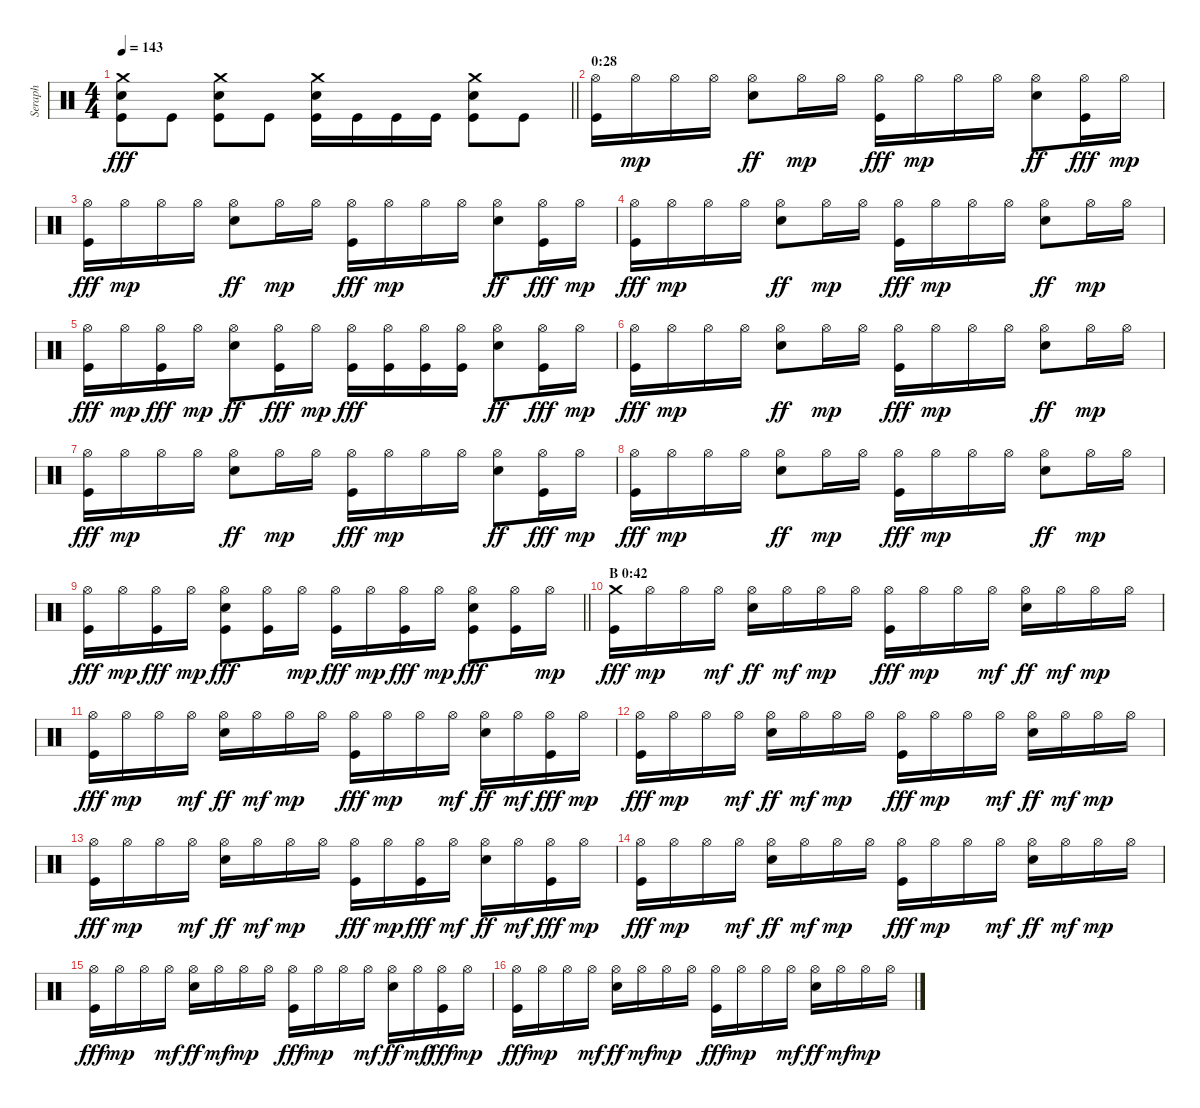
\track ("Seraph" "Seraph") {instrument percussion}
\staff {score}
\articulation defaults
\ts (4 4)
\tempo 143
\clef neutral
\barLineRight lightlight
\ks c
("Crash medium (hit)" "Electric Snare (hit)" "Kick (hit)").8{dy fff} "Kick (hit)".8 ("Crash medium (hit)" "Electric Snare (hit)" "Kick (hit)").8 "Kick (hit)".8 ("Crash medium (hit)" "Electric Snare (hit)" "Kick (hit)").16 "Kick (hit)".16 "Kick (hit)".16 "Kick (hit)".16 ("Crash medium (hit)" "Electric Snare (hit)" "Kick (hit)").8 "Kick (hit)".8 |
\section ("" "0:28")
("Hi-Hat (open)" "Kick (hit)").16 "Hi-Hat (open)".16{dy mp} "Hi-Hat (open)".16 "Hi-Hat (open)".16 ("Hi-Hat (open)" "Electric Snare (hit)").8{dy ff} "Hi-Hat (open)".16{dy mp} "Hi-Hat (open)".16 ("Hi-Hat (open)" "Kick (hit)").16{dy fff} "Hi-Hat (open)".16{dy mp} "Hi-Hat (open)".16 "Hi-Hat (open)".16 ("Hi-Hat (open)" "Electric Snare (hit)").8{dy ff} ("Hi-Hat (open)" "Kick (hit)").16{dy fff} "Hi-Hat (open)".16{dy mp} |
("Hi-Hat (open)" "Kick (hit)").16{dy fff} "Hi-Hat (open)".16{dy mp} "Hi-Hat (open)".16 "Hi-Hat (open)".16 ("Hi-Hat (open)" "Electric Snare (hit)").8{dy ff} "Hi-Hat (open)".16{dy mp} "Hi-Hat (open)".16 ("Hi-Hat (open)" "Kick (hit)").16{dy fff} "Hi-Hat (open)".16{dy mp} "Hi-Hat (open)".16 "Hi-Hat (open)".16 ("Hi-Hat (open)" "Electric Snare (hit)").8{dy ff} ("Hi-Hat (open)" "Kick (hit)").16{dy fff} "Hi-Hat (open)".16{dy mp} |
("Hi-Hat (open)" "Kick (hit)").16{dy fff} "Hi-Hat (open)".16{dy mp} "Hi-Hat (open)".16 "Hi-Hat (open)".16 ("Hi-Hat (open)" "Electric Snare (hit)").8{dy ff} "Hi-Hat (open)".16{dy mp} "Hi-Hat (open)".16 ("Hi-Hat (open)" "Kick (hit)").16{dy fff} "Hi-Hat (open)".16{dy mp} "Hi-Hat (open)".16 "Hi-Hat (open)".16 ("Hi-Hat (open)" "Electric Snare (hit)").8{dy ff} "Hi-Hat (open)".16{dy mp} "Hi-Hat (open)".16 |
("Hi-Hat (open)" "Kick (hit)").16{dy fff} "Hi-Hat (open)".16{dy mp} ("Hi-Hat (open)" "Kick (hit)").16{dy fff} "Hi-Hat (open)".16{dy mp} ("Hi-Hat (open)" "Electric Snare (hit)").8{dy ff} ("Hi-Hat (open)" "Kick (hit)").16{dy fff} "Hi-Hat (open)".16{dy mp} ("Hi-Hat (open)" "Kick (hit)").16{dy fff} ("Hi-Hat (open)" "Kick (hit)").16 ("Hi-Hat (open)" "Kick (hit)").16 ("Hi-Hat (open)" "Kick (hit)").16 ("Hi-Hat (open)" "Electric Snare (hit)").8{dy ff} ("Hi-Hat (open)" "Kick (hit)").16{dy fff} "Hi-Hat (open)".16{dy mp} |
("Hi-Hat (open)" "Kick (hit)").16{dy fff} "Hi-Hat (open)".16{dy mp} "Hi-Hat (open)".16 "Hi-Hat (open)".16 ("Hi-Hat (open)" "Electric Snare (hit)").8{dy ff} "Hi-Hat (open)".16{dy mp} "Hi-Hat (open)".16 ("Hi-Hat (open)" "Kick (hit)").16{dy fff} "Hi-Hat (open)".16{dy mp} "Hi-Hat (open)".16 "Hi-Hat (open)".16 ("Hi-Hat (open)" "Electric Snare (hit)").8{dy ff} "Hi-Hat (open)".16{dy mp} "Hi-Hat (open)".16 |
("Hi-Hat (open)" "Kick (hit)").16{dy fff} "Hi-Hat (open)".16{dy mp} "Hi-Hat (open)".16 "Hi-Hat (open)".16 ("Hi-Hat (open)" "Electric Snare (hit)").8{dy ff} "Hi-Hat (open)".16{dy mp} "Hi-Hat (open)".16 ("Hi-Hat (open)" "Kick (hit)").16{dy fff} "Hi-Hat (open)".16{dy mp} "Hi-Hat (open)".16 "Hi-Hat (open)".16 ("Hi-Hat (open)" "Electric Snare (hit)").8{dy ff} ("Hi-Hat (open)" "Kick (hit)").16{dy fff} "Hi-Hat (open)".16{dy mp} |
("Hi-Hat (open)" "Kick (hit)").16{dy fff} "Hi-Hat (open)".16{dy mp} "Hi-Hat (open)".16 "Hi-Hat (open)".16 ("Hi-Hat (open)" "Electric Snare (hit)").8{dy ff} "Hi-Hat (open)".16{dy mp} "Hi-Hat (open)".16 ("Hi-Hat (open)" "Kick (hit)").16{dy fff} "Hi-Hat (open)".16{dy mp} "Hi-Hat (open)".16 "Hi-Hat (open)".16 ("Hi-Hat (open)" "Electric Snare (hit)").8{dy ff} "Hi-Hat (open)".16{dy mp} "Hi-Hat (open)".16 |
\barLineRight lightlight
("Hi-Hat (open)" "Kick (hit)").16{dy fff} "Hi-Hat (open)".16{dy mp} ("Hi-Hat (open)" "Kick (hit)").16{dy fff} "Hi-Hat (open)".16{dy mp} ("Hi-Hat (open)" "Electric Snare (hit)" "Kick (hit)").8{dy fff} ("Hi-Hat (open)" "Kick (hit)").16 "Hi-Hat (open)".16{dy mp} ("Hi-Hat (open)" "Kick (hit)").16{dy fff} "Hi-Hat (open)".16{dy mp} ("Hi-Hat (open)" "Kick (hit)").16{dy fff} "Hi-Hat (open)".16{dy mp} ("Hi-Hat (open)" "Electric Snare (hit)" "Kick (hit)").8{dy fff} ("Hi-Hat (open)" "Kick (hit)").16 "Hi-Hat (open)".16{dy mp} |
\section ("" "B 0:42")
("Crash medium (hit)" "Kick (hit)").16{dy fff} "Hi-Hat (open)".16{dy mp} "Hi-Hat (open)".16 "Hi-Hat (open)".16{dy mf} ("Hi-Hat (open)" "Electric Snare (hit)").16{dy ff} "Hi-Hat (open)".16{dy mf} "Hi-Hat (open)".16{dy mp} "Hi-Hat (open)".16 ("Hi-Hat (open)" "Kick (hit)").16{dy fff} "Hi-Hat (open)".16{dy mp} "Hi-Hat (open)".16 "Hi-Hat (open)".16{dy mf} ("Hi-Hat (open)" "Electric Snare (hit)").16{dy ff} "Hi-Hat (open)".16{dy mf} "Hi-Hat (open)".16{dy mp} "Hi-Hat (open)".16 |
("Hi-Hat (open)" "Kick (hit)").16{dy fff} "Hi-Hat (open)".16{dy mp} "Hi-Hat (open)".16 "Hi-Hat (open)".16{dy mf} ("Hi-Hat (open)" "Electric Snare (hit)").16{dy ff} "Hi-Hat (open)".16{dy mf} "Hi-Hat (open)".16{dy mp} "Hi-Hat (open)".16 ("Hi-Hat (open)" "Kick (hit)").16{dy fff} "Hi-Hat (open)".16{dy mp} "Hi-Hat (open)".16 "Hi-Hat (open)".16{dy mf} ("Hi-Hat (open)" "Electric Snare (hit)").16{dy ff} "Hi-Hat (open)".16{dy mf} ("Hi-Hat (open)" "Kick (hit)").16{dy fff} "Hi-Hat (open)".16{dy mp} |
("Hi-Hat (open)" "Kick (hit)").16{dy fff} "Hi-Hat (open)".16{dy mp} "Hi-Hat (open)".16 "Hi-Hat (open)".16{dy mf} ("Hi-Hat (open)" "Electric Snare (hit)").16{dy ff} "Hi-Hat (open)".16{dy mf} "Hi-Hat (open)".16{dy mp} "Hi-Hat (open)".16 ("Hi-Hat (open)" "Kick (hit)").16{dy fff} "Hi-Hat (open)".16{dy mp} "Hi-Hat (open)".16 "Hi-Hat (open)".16{dy mf} ("Hi-Hat (open)" "Electric Snare (hit)").16{dy ff} "Hi-Hat (open)".16{dy mf} "Hi-Hat (open)".16{dy mp} "Hi-Hat (open)".16 |
("Hi-Hat (open)" "Kick (hit)").16{dy fff} "Hi-Hat (open)".16{dy mp} "Hi-Hat (open)".16 "Hi-Hat (open)".16{dy mf} ("Hi-Hat (open)" "Electric Snare (hit)").16{dy ff} "Hi-Hat (open)".16{dy mf} "Hi-Hat (open)".16{dy mp} "Hi-Hat (open)".16 ("Hi-Hat (open)" "Kick (hit)").16{dy fff} "Hi-Hat (open)".16{dy mp} ("Hi-Hat (open)" "Kick (hit)").16{dy fff} "Hi-Hat (open)".16{dy mf} ("Hi-Hat (open)" "Electric Snare (hit)").16{dy ff} "Hi-Hat (open)".16{dy mf} ("Hi-Hat (open)" "Kick (hit)").16{dy fff} "Hi-Hat (open)".16{dy mp} |
("Hi-Hat (open)" "Kick (hit)").16{dy fff} "Hi-Hat (open)".16{dy mp} "Hi-Hat (open)".16 "Hi-Hat (open)".16{dy mf} ("Hi-Hat (open)" "Electric Snare (hit)").16{dy ff} "Hi-Hat (open)".16{dy mf} "Hi-Hat (open)".16{dy mp} "Hi-Hat (open)".16 ("Hi-Hat (open)" "Kick (hit)").16{dy fff} "Hi-Hat (open)".16{dy mp} "Hi-Hat (open)".16 "Hi-Hat (open)".16{dy mf} ("Hi-Hat (open)" "Electric Snare (hit)").16{dy ff} "Hi-Hat (open)".16{dy mf} "Hi-Hat (open)".16{dy mp} "Hi-Hat (open)".16 |
("Hi-Hat (open)" "Kick (hit)").16{dy fff} "Hi-Hat (open)".16{dy mp} "Hi-Hat (open)".16 "Hi-Hat (open)".16{dy mf} ("Hi-Hat (open)" "Electric Snare (hit)").16{dy ff} "Hi-Hat (open)".16{dy mf} "Hi-Hat (open)".16{dy mp} "Hi-Hat (open)".16 ("Hi-Hat (open)" "Kick (hit)").16{dy fff} "Hi-Hat (open)".16{dy mp} "Hi-Hat (open)".16 "Hi-Hat (open)".16{dy mf} ("Hi-Hat (open)" "Electric Snare (hit)").16{dy ff} "Hi-Hat (open)".16{dy mf} ("Hi-Hat (open)" "Kick (hit)").16{dy fff} "Hi-Hat (open)".16{dy mp} |
("Hi-Hat (open)" "Kick (hit)").16{dy fff} "Hi-Hat (open)".16{dy mp} "Hi-Hat (open)".16 "Hi-Hat (open)".16{dy mf} ("Hi-Hat (open)" "Electric Snare (hit)").16{dy ff} "Hi-Hat (open)".16{dy mf} "Hi-Hat (open)".16{dy mp} "Hi-Hat (open)".16 ("Hi-Hat (open)" "Kick (hit)").16{dy fff} "Hi-Hat (open)".16{dy mp} "Hi-Hat (open)".16 "Hi-Hat (open)".16{dy mf} ("Hi-Hat (open)" "Electric Snare (hit)").16{dy ff} "Hi-Hat (open)".16{dy mf} "Hi-Hat (open)".16{dy mp} "Hi-Hat (open)".16
